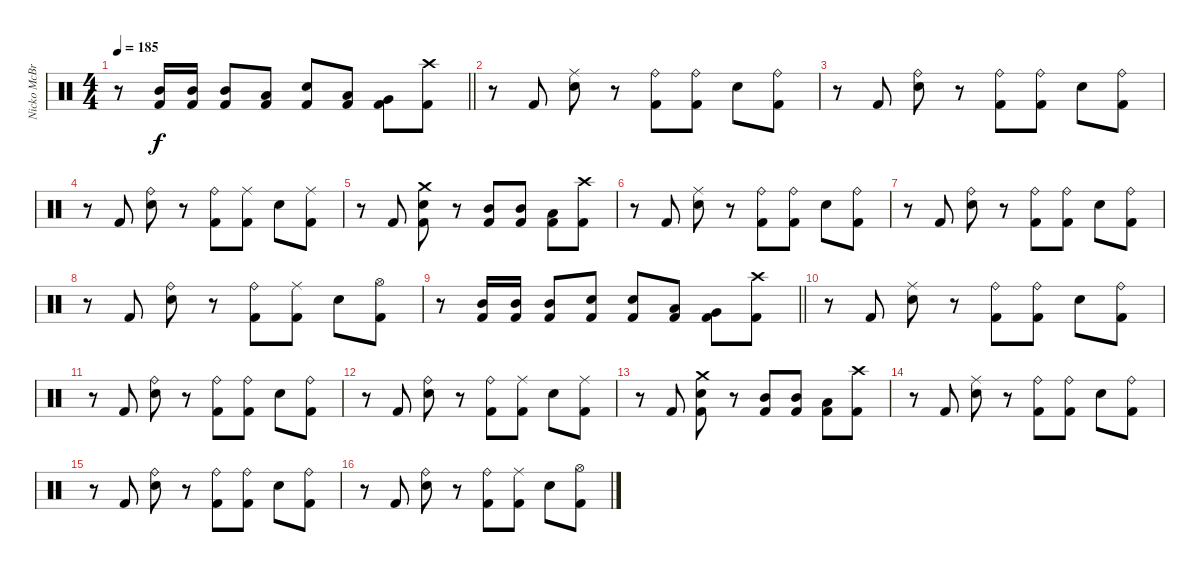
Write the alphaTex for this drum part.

\track ("Nicko McBrain" "Nicko McBr") {instrument percussion}
\staff {score}
\articulation defaults
\ts (4 4)
\tempo 185
\clef neutral
\barLineRight lightlight
\ks c
r.8{dy f} ("Mid Tom (hit)" "Kick (hit) 2").16 ("Mid Tom (hit)" "Kick (hit) 2").16 ("Mid Tom (hit)" "Kick (hit) 2").8 ("Low Tom (hit)" "Kick (hit) 2").8 ("Snare (hit) 2" "Kick (hit) 2").8 ("Low Tom (hit)" "Kick (hit) 2").8 ("Very Low Tom (hit)" "Kick (hit) 2").8 ("Crash high (hit)" "Kick (hit) 2").8 |
r.8 "Kick (hit) 2".8 ("Ride (middle)" "Snare (hit) 2").8 r.8 ("Ride (bell)" "Kick (hit) 2").8 ("Ride (bell)" "Kick (hit) 2").8 "Snare (hit) 2".8 ("Ride (bell)" "Kick (hit) 2").8 |
r.8 "Kick (hit) 2".8 ("Ride (bell)" "Snare (hit) 2").8 r.8 ("Ride (bell)" "Kick (hit) 2").8 ("Ride (bell)" "Kick (hit) 2").8 "Snare (hit) 2".8 ("Ride (bell)" "Kick (hit) 2").8 |
r.8 "Kick (hit) 2".8 ("Ride (bell)" "Snare (hit) 2").8 r.8 ("Ride (bell)" "Kick (hit) 2").8 ("Ride (middle)" "Kick (hit) 2").8 "Snare (hit) 2".8 ("Ride (middle)" "Kick (hit) 2").8 |
r.8 "Kick (hit) 2".8 ("Crash medium (hit)" "Snare (hit) 2" "Kick (hit) 2").8 r.8 ("Mid Tom (hit)" "Kick (hit) 2").8 ("Mid Tom (hit)" "Kick (hit) 2").8 ("Low Tom (hit)" "Kick (hit) 2").8 ("Crash high (hit)" "Kick (hit) 2").8 |
r.8 "Kick (hit) 2".8 ("Ride (middle)" "Snare (hit) 2").8 r.8 ("Ride (bell)" "Kick (hit) 2").8 ("Ride (bell)" "Kick (hit) 2").8 "Snare (hit) 2".8 ("Ride (bell)" "Kick (hit) 2").8 |
r.8 "Kick (hit) 2".8 ("Ride (bell)" "Snare (hit) 2").8 r.8 ("Ride (bell)" "Kick (hit) 2").8 ("Ride (bell)" "Kick (hit) 2").8 "Snare (hit) 2".8 ("Ride (bell)" "Kick (hit) 2").8 |
r.8 "Kick (hit) 2".8 ("Ride (bell)" "Snare (hit) 2").8 r.8 ("Ride (bell)" "Kick (hit) 2").8 ("Ride (middle)" "Kick (hit) 2").8 "Snare (hit) 2".8 ("Hi-Hat (open)" "Kick (hit) 2").8 |
\barLineRight lightlight
r.8 ("Mid Tom (hit)" "Kick (hit) 2").16 ("Mid Tom (hit)" "Kick (hit) 2").16 ("Mid Tom (hit)" "Kick (hit) 2").8 ("Snare (hit) 2" "Kick (hit) 2").8 ("Snare (hit) 2" "Kick (hit) 2").8 ("Low Tom (hit)" "Kick (hit) 2").8 ("Very Low Tom (hit)" "Kick (hit) 2").8 ("Crash high (hit)" "Kick (hit) 2").8 |
r.8 "Kick (hit) 2".8 ("Ride (middle)" "Snare (hit) 2").8 r.8 ("Ride (bell)" "Kick (hit) 2").8 ("Ride (bell)" "Kick (hit) 2").8 "Snare (hit) 2".8 ("Ride (bell)" "Kick (hit) 2").8 |
r.8 "Kick (hit) 2".8 ("Ride (bell)" "Snare (hit) 2").8 r.8 ("Ride (bell)" "Kick (hit) 2").8 ("Ride (bell)" "Kick (hit) 2").8 "Snare (hit) 2".8 ("Ride (bell)" "Kick (hit) 2").8 |
r.8 "Kick (hit) 2".8 ("Ride (bell)" "Snare (hit) 2").8 r.8 ("Ride (bell)" "Kick (hit) 2").8 ("Ride (middle)" "Kick (hit) 2").8 "Snare (hit) 2".8 ("Ride (middle)" "Kick (hit) 2").8 |
r.8 "Kick (hit) 2".8 ("Crash medium (hit)" "Snare (hit) 2" "Kick (hit) 2").8 r.8 ("Mid Tom (hit)" "Kick (hit) 2").8 ("Mid Tom (hit)" "Kick (hit) 2").8 ("Low Tom (hit)" "Kick (hit) 2").8 ("Crash high (hit)" "Kick (hit) 2").8 |
r.8 "Kick (hit) 2".8 ("Ride (middle)" "Snare (hit) 2").8 r.8 ("Ride (bell)" "Kick (hit) 2").8 ("Ride (bell)" "Kick (hit) 2").8 "Snare (hit) 2".8 ("Ride (bell)" "Kick (hit) 2").8 |
r.8 "Kick (hit) 2".8 ("Ride (bell)" "Snare (hit) 2").8 r.8 ("Ride (bell)" "Kick (hit) 2").8 ("Ride (bell)" "Kick (hit) 2").8 "Snare (hit) 2".8 ("Ride (bell)" "Kick (hit) 2").8 |
r.8 "Kick (hit) 2".8 ("Ride (bell)" "Snare (hit) 2").8 r.8 ("Ride (bell)" "Kick (hit) 2").8 ("Ride (middle)" "Kick (hit) 2").8 "Snare (hit) 2".8 ("Hi-Hat (open)" "Kick (hit) 2").8
